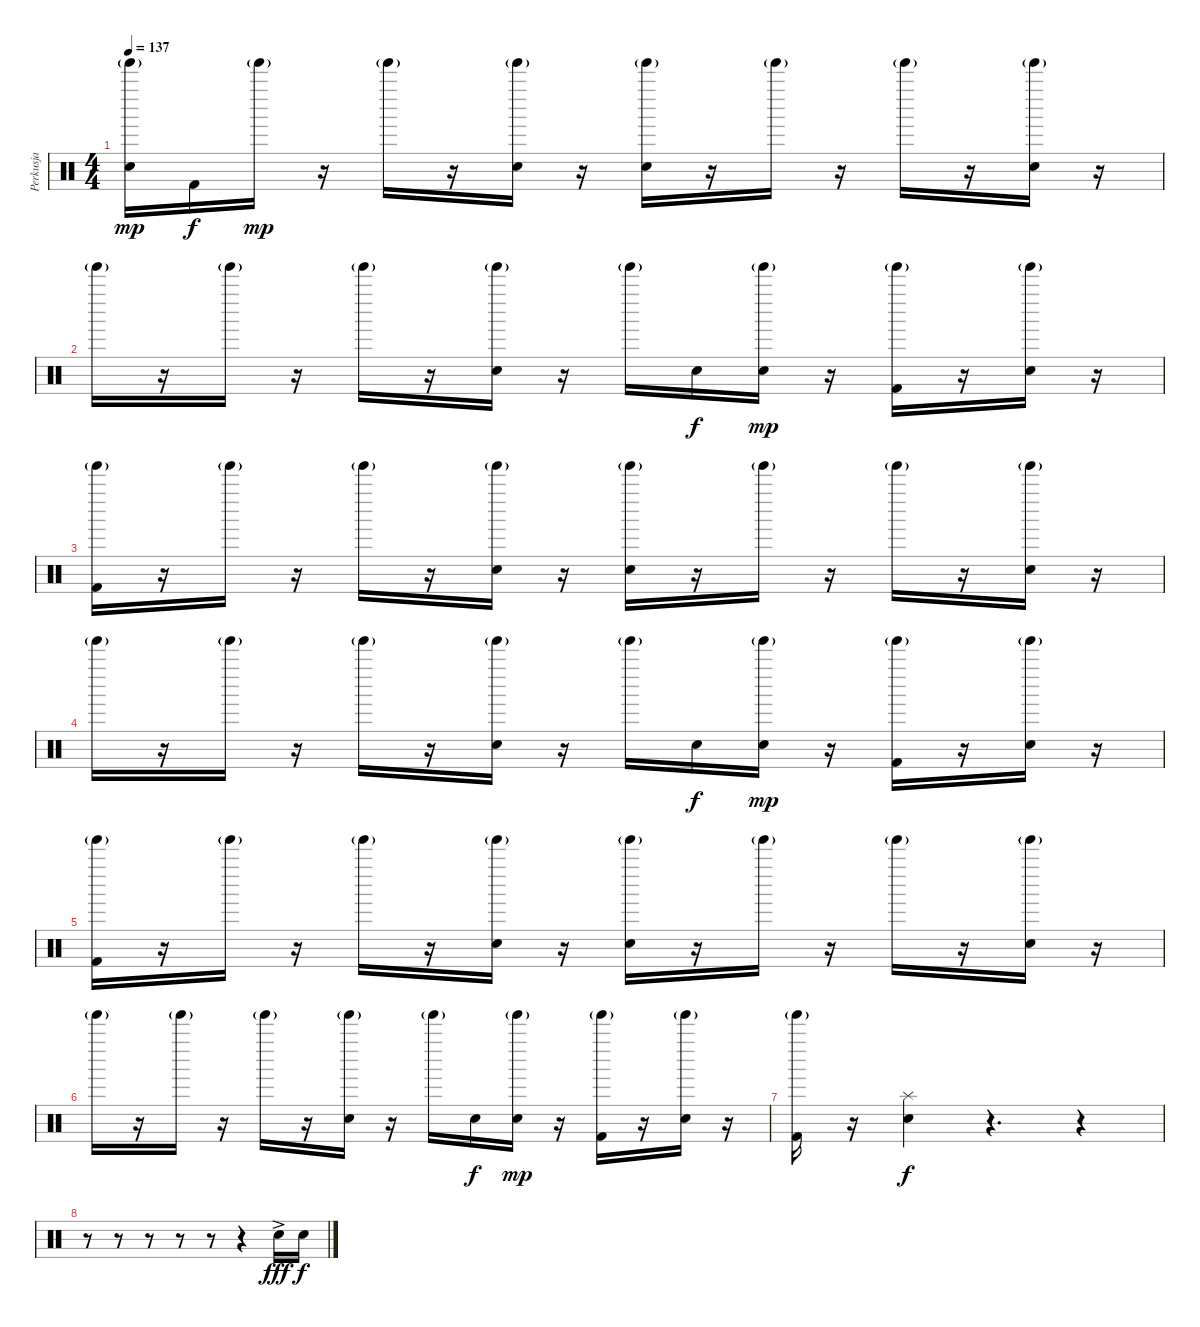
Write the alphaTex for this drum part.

\track ("Perkusja" "Perkusja") {instrument percussion}
\staff {score}
\articulation defaults
\ts (4 4)
\tempo 137
\clef neutral
\ks c
("Electric Snare (hit)" "Tinkle Bell (hit)"{g}).16{dy mp} "Kick (hit) 2".16{dy f} "Tinkle Bell (hit)"{g}.16{dy mp} r.16 "Tinkle Bell (hit)"{g}.16 r.16 ("Electric Snare (hit)" "Tinkle Bell (hit)"{g}).16 r.16 ("Electric Snare (hit)" "Tinkle Bell (hit)"{g}).16 r.16 "Tinkle Bell (hit)"{g}.16 r.16 "Tinkle Bell (hit)"{g}.16 r.16 ("Electric Snare (hit)" "Tinkle Bell (hit)"{g}).16 r.16 |
"Tinkle Bell (hit)"{g}.16 r.16 "Tinkle Bell (hit)"{g}.16 r.16 "Tinkle Bell (hit)"{g}.16 r.16 ("Electric Snare (hit)" "Tinkle Bell (hit)"{g}).16 r.16 "Tinkle Bell (hit)"{g}.16 "Electric Snare (hit)".16{dy f} ("Electric Snare (hit)" "Tinkle Bell (hit)"{g}).16{dy mp} r.16 ("Kick (hit) 2" "Tinkle Bell (hit)"{g}).16 r.16 ("Electric Snare (hit)" "Tinkle Bell (hit)"{g}).16 r.16 |
("Kick (hit) 2" "Tinkle Bell (hit)"{g}).16 r.16 "Tinkle Bell (hit)"{g}.16 r.16 "Tinkle Bell (hit)"{g}.16 r.16 ("Electric Snare (hit)" "Tinkle Bell (hit)"{g}).16 r.16 ("Electric Snare (hit)" "Tinkle Bell (hit)"{g}).16 r.16 "Tinkle Bell (hit)"{g}.16 r.16 "Tinkle Bell (hit)"{g}.16 r.16 ("Electric Snare (hit)" "Tinkle Bell (hit)"{g}).16 r.16 |
"Tinkle Bell (hit)"{g}.16 r.16 "Tinkle Bell (hit)"{g}.16 r.16 "Tinkle Bell (hit)"{g}.16 r.16 ("Electric Snare (hit)" "Tinkle Bell (hit)"{g}).16 r.16 "Tinkle Bell (hit)"{g}.16 "Electric Snare (hit)".16{dy f} ("Electric Snare (hit)" "Tinkle Bell (hit)"{g}).16{dy mp} r.16 ("Kick (hit) 2" "Tinkle Bell (hit)"{g}).16 r.16 ("Electric Snare (hit)" "Tinkle Bell (hit)"{g}).16 r.16 |
("Kick (hit) 2" "Tinkle Bell (hit)"{g}).16 r.16 "Tinkle Bell (hit)"{g}.16 r.16 "Tinkle Bell (hit)"{g}.16 r.16 ("Electric Snare (hit)" "Tinkle Bell (hit)"{g}).16 r.16 ("Electric Snare (hit)" "Tinkle Bell (hit)"{g}).16 r.16 "Tinkle Bell (hit)"{g}.16 r.16 "Tinkle Bell (hit)"{g}.16 r.16 ("Electric Snare (hit)" "Tinkle Bell (hit)"{g}).16 r.16 |
"Tinkle Bell (hit)"{g}.16 r.16 "Tinkle Bell (hit)"{g}.16 r.16 "Tinkle Bell (hit)"{g}.16 r.16 ("Electric Snare (hit)" "Tinkle Bell (hit)"{g}).16 r.16 "Tinkle Bell (hit)"{g}.16 "Electric Snare (hit)".16{dy f} ("Electric Snare (hit)" "Tinkle Bell (hit)"{g}).16{dy mp} r.16 ("Kick (hit) 2" "Tinkle Bell (hit)"{g}).16 r.16 ("Electric Snare (hit)" "Tinkle Bell (hit)"{g}).16 r.16 |
("Kick (hit) 2" "Tinkle Bell (hit)"{g}).16 r.16 ("Electric Snare (hit)" "Splash (hit)").4{dy f} r.4{d} r.4 |
r.8 r.8 r.8 r.8 r.8 r.4 "Electric Snare (hit)"{ac}.16{dy fff} "Electric Snare (hit)".16{dy f}
